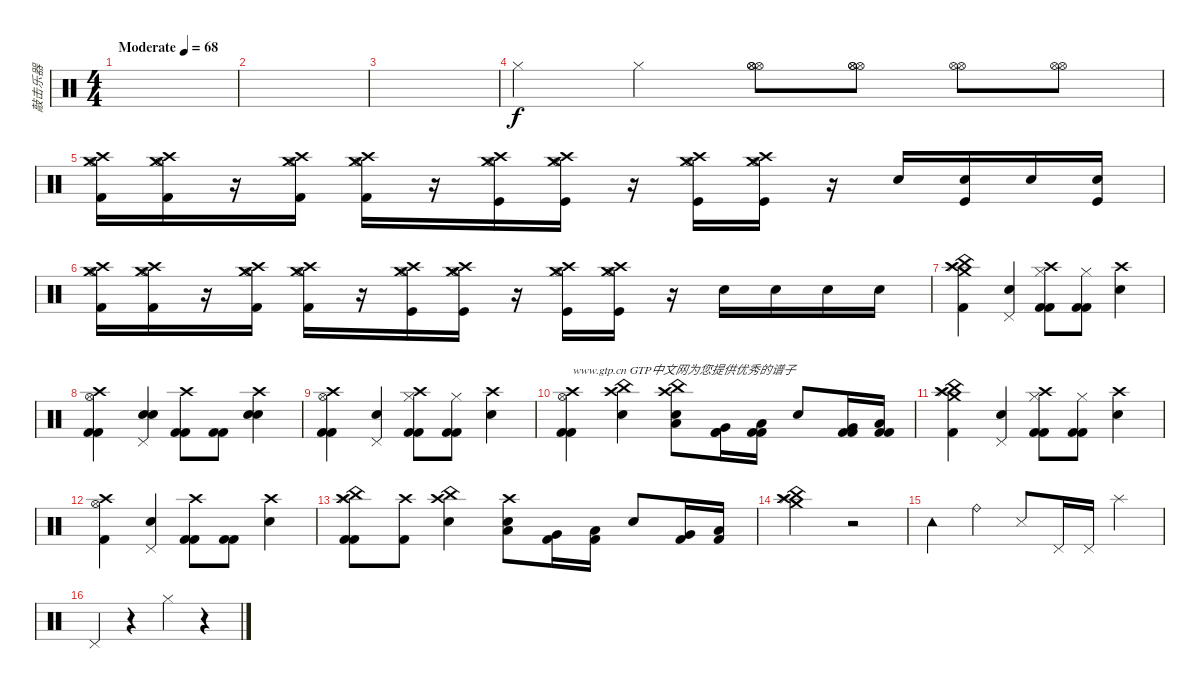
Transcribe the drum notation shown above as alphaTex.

\track ("敲击乐器" "敲击乐器") {instrument percussion}
\staff {score}
\articulation defaults
\ts (4 4)
\tempo (68 "Moderate")
\clef neutral
\ks c
|
|
|
"Hi-Hat (closed)".4 "Hi-Hat (closed)".4 ("Hi-Hat (open)" "Hi-Hat (open)" "Hi-Hat (open)").8 ("Hi-Hat (open)" "Hi-Hat (open)" "Hi-Hat (open)").8 ("Hi-Hat (open)" "Hi-Hat (open)").8 ("Hi-Hat (open)" "Hi-Hat (open)").8 |
("Crash medium (hit)" "Crash high (hit)" "Hi-Hat (open)" "Kick (hit) 2").16 ("Crash medium (hit)" "Crash high (hit)" "Hi-Hat (open)" "Kick (hit) 2").16 r.16 ("Crash medium (hit)" "Crash high (hit)" "Hi-Hat (open)" "Kick (hit) 2").16 ("Crash medium (hit)" "Crash high (hit)" "Hi-Hat (open)" "Kick (hit) 2").16 r.16 ("Crash medium (hit)" "Crash high (hit)" "Hi-Hat (open)" "Kick (hit)").16 ("Crash medium (hit)" "Crash high (hit)" "Hi-Hat (open)" "Kick (hit)").16 r.16 ("Crash medium (hit)" "Crash high (hit)" "Hi-Hat (open)" "Kick (hit)").16 ("Crash medium (hit)" "Crash high (hit)" "Hi-Hat (open)" "Kick (hit)").16 r.16 "Electric Snare (hit)".16 ("Kick (hit)" "Snare (hit) 2").16 "Electric Snare (hit)".16 ("Kick (hit)" "Snare (hit) 2").16 |
("Crash medium (hit)" "Crash high (hit)" "Hi-Hat (open)" "Kick (hit) 2").16 ("Crash medium (hit)" "Crash high (hit)" "Hi-Hat (open)" "Kick (hit) 2").16 r.16 ("Crash medium (hit)" "Crash high (hit)" "Hi-Hat (open)" "Kick (hit) 2").16 ("Crash medium (hit)" "Crash high (hit)" "Hi-Hat (open)" "Kick (hit) 2").16 r.16 ("Crash medium (hit)" "Crash high (hit)" "Hi-Hat (open)" "Kick (hit)").16 ("Crash medium (hit)" "Crash high (hit)" "Hi-Hat (open)" "Kick (hit)").16 r.16 ("Crash medium (hit)" "Crash high (hit)" "Hi-Hat (open)" "Kick (hit)").16 ("Crash medium (hit)" "Crash high (hit)" "Hi-Hat (open)" "Kick (hit)").16 r.16 "Electric Snare (hit)".16 "Electric Snare (hit)".16 "Electric Snare (hit)".16 "Electric Snare (hit)".16 |
("Kick (hit) 2" "Crash high (hit)" "China (hit)" "Splash (hit)" "Crash medium (hit)").4 ("Pedal Hi-Hat (hit)" "Snare (hit) 2").4 ("Crash high (hit)" "Hi-Hat (closed)" "Kick (hit) 2" "Kick (hit) 2").8 ("Hi-Hat (closed)" "Kick (hit) 2" "Kick (hit) 2").8 ("Crash high (hit)" "Electric Snare (hit)").4 |
("Crash high (hit)" "Hi-Hat (open)" "Kick (hit) 2" "Kick (hit) 2").4 ("Pedal Hi-Hat (hit)" "Snare (hit) 2" "Snare (hit) 2").4 ("Crash high (hit)" "Kick (hit) 2" "Kick (hit) 2").8 ("Kick (hit) 2" "Kick (hit) 2").8 ("Crash high (hit)" "Electric Snare (hit)" "Electric Snare (hit)").4 |
("Crash high (hit)" "Hi-Hat (open)" "Kick (hit) 2" "Kick (hit) 2").4 ("Pedal Hi-Hat (hit)" "Snare (hit) 2").4 ("Crash high (hit)" "Hi-Hat (closed)" "Kick (hit) 2" "Kick (hit) 2").8 ("Hi-Hat (closed)" "Kick (hit) 2" "Kick (hit) 2").8 ("Crash high (hit)" "Electric Snare (hit)").4 |
("Crash high (hit)" "Hi-Hat (open)" "Kick (hit) 2" "Kick (hit) 2").4{txt "www.gtp.cn GTP中文网为您提供优秀的谱子"} ("China (hit)" "Crash high (hit)" "Snare (hit) 2").4 ("China (hit)" "Crash high (hit)" "Low Tom (hit)" "Electric Snare (hit)").8 ("Very Low Tom (hit)" "Kick (hit) 2" "Kick (hit) 2").16 ("Low Floor Tom (hit)" "Kick (hit) 2" "Kick (hit) 2").16 "Electric Snare (hit)".8 ("Very Low Tom (hit)" "Kick (hit) 2" "Kick (hit) 2").16 ("Low Floor Tom (hit)" "Kick (hit) 2" "Kick (hit) 2").16 |
("Kick (hit) 2" "Crash high (hit)" "China (hit)" "Splash (hit)" "Crash medium (hit)").4 ("Pedal Hi-Hat (hit)" "Snare (hit) 2").4 ("Crash high (hit)" "Hi-Hat (closed)" "Kick (hit) 2" "Kick (hit) 2").8 ("Hi-Hat (closed)" "Kick (hit) 2" "Kick (hit) 2").8 ("Crash high (hit)" "Electric Snare (hit)").4 |
("Crash high (hit)" "Hi-Hat (open)" "Kick (hit) 2").4 ("Pedal Hi-Hat (hit)" "Snare (hit) 2").4 ("Crash high (hit)" "Kick (hit) 2" "Kick (hit) 2").8 ("Kick (hit) 2" "Kick (hit) 2").8 ("Crash high (hit)" "Electric Snare (hit)").4 |
("Kick (hit) 2" "Crash high (hit)" "China (hit)" "Splash (hit)" "Kick (hit) 2").8 ("Crash high (hit)" "Kick (hit) 2").8 ("China (hit)" "Crash high (hit)" "Snare (hit) 2").4 ("Crash high (hit)" "Low Tom (hit)" "Electric Snare (hit)").8 ("Very Low Tom (hit)" "Kick (hit) 2").16 ("Low Floor Tom (hit)" "Kick (hit) 2").16 "Electric Snare (hit)".8 ("Very Low Tom (hit)" "Kick (hit) 2").16 ("Low Floor Tom (hit)" "Kick (hit) 2").16 |
("Crash high (hit)" "China (hit)" "Splash (hit)" "Crash medium (hit)").2 r.2 |
"Tambourine (hit)".4 "Ride (bell)".4 "Metronome (hit)".8 "Pedal Hi-Hat (hit)".16 "Pedal Hi-Hat (hit)".16 "Splash (hit)".4 |
"Pedal Hi-Hat (hit)".4 r.4 "Hi-Hat (closed)".4 r.4
